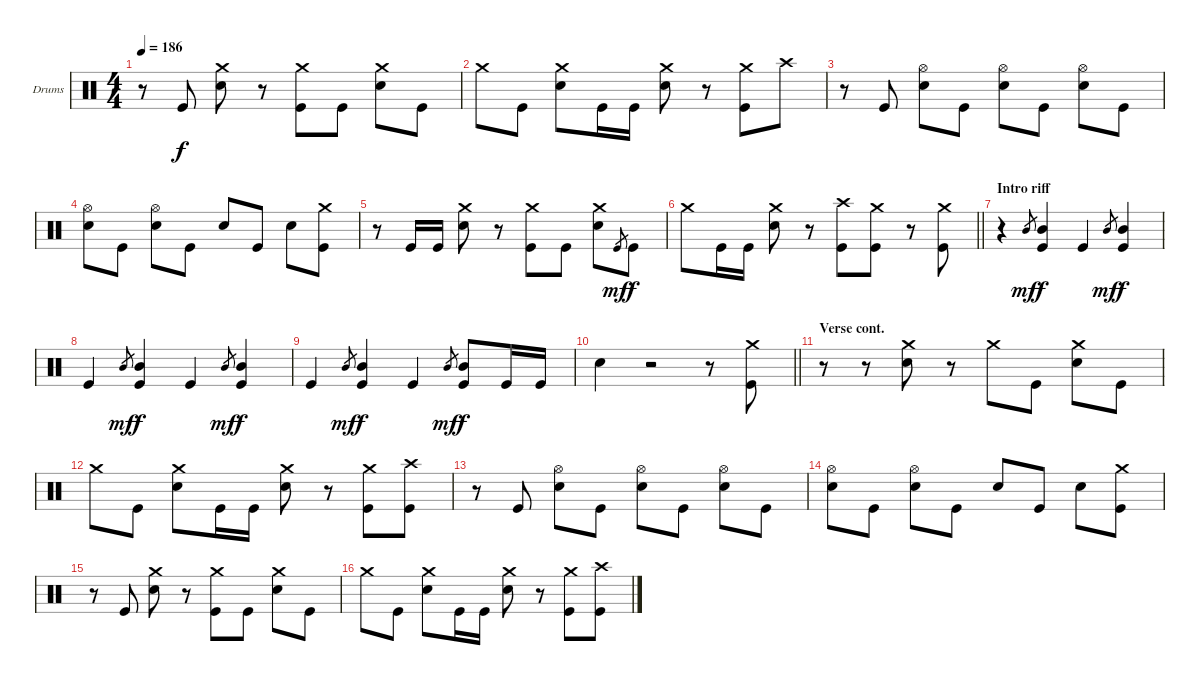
\bracketExtendMode groupsimilarinstruments
\firstSystemTrackNameOrientation horizontal
\otherSystemsTrackNameOrientation horizontal
\track ("Drumkit" "Drums") {instrument percussion}
\staff {score}
\articulation defaults
\ts (4 4)
\tempo 186
\clef neutral
\scale
0.333333
\ks c
r.8{dy f} "Kick (hit)".8 ("Crash medium (hit)" "Snare (hit) 2").8 r.8 ("Crash medium (hit)" "Kick (hit)").8 "Kick (hit)".8 ("Crash medium (hit)" "Snare (hit) 2").8 "Kick (hit)".8 |
\scale
0.333333 "Crash medium (hit)".8 "Kick (hit)".8 ("Crash medium (hit)" "Snare (hit) 2").8 "Kick (hit)".16 "Kick (hit)".16 ("Crash medium (hit)" "Snare (hit) 2").8 r.8 ("Crash medium (hit)" "Kick (hit)").8 "Crash high (hit)".8 |
\scale
0.333333 r.8 "Kick (hit)".8 ("Hi-Hat (open)" "Snare (hit) 2").8 "Kick (hit)".8 ("Hi-Hat (open)" "Snare (hit) 2").8 "Kick (hit)".8 ("Hi-Hat (open)" "Snare (hit) 2").8 "Kick (hit)".8 |
\scale
0.333333 ("Hi-Hat (open)" "Snare (hit) 2").8 "Kick (hit)".8 ("Hi-Hat (open)" "Snare (hit) 2").8 "Kick (hit)".8 "Snare (hit) 2".8 "Kick (hit)".8 "Snare (hit) 2".8 ("Crash medium (hit)" "Kick (hit)").8 |
\scale
0.333333 r.8 "Kick (hit)".16 "Kick (hit)".16 ("Crash medium (hit)" "Snare (hit) 2").8 r.8 ("Crash medium (hit)" "Kick (hit)").8 "Kick (hit)".8 ("Crash medium (hit)" "Snare (hit) 2").8 "Kick (hit)".8{gr dy mf} "Kick (hit)".8{dy f} |
\scale
0.333333
\barLineRight lightlight "Crash medium (hit)".8 "Kick (hit)".16 "Kick (hit)".16
("Crash medium (hit)" "Snare (hit) 2").8 r.8 ("Crash high (hit)" "Kick (hit)").8 ("Crash medium (hit)" "Kick (hit)").8 r.8 ("Crash medium (hit)" "Kick (hit)").8 |
\section ("" "Intro riff")
\scale
0.333333 r.4 "Mid Tom (hit)".8{gr dy mf} ("Mid Tom (hit)" "Kick (hit)").4{dy f} "Kick (hit)".4 "Mid Tom (hit)".8{gr dy mf} ("Mid Tom (hit)" "Kick (hit)").4{dy f} |
\scale
0.333333 "Kick (hit)".4 "Mid Tom (hit)".8{gr dy mf} ("Mid Tom (hit)" "Kick (hit)").4{dy f} "Kick (hit)".4 "Mid Tom (hit)".8{gr dy mf} ("Mid Tom (hit)" "Kick (hit)").4{dy f} |
\scale
0.333333 "Kick (hit)".4 "Mid Tom (hit)".8{gr dy mf} ("Mid Tom (hit)" "Kick (hit)").4{dy f} "Kick (hit)".4 "Mid Tom (hit)".8{gr dy mf} ("Mid Tom (hit)" "Kick (hit)").8{dy f} "Kick (hit)".16 "Kick (hit)".16 |
\scale
0.333333
\barLineRight lightlight "Snare (hit) 2".4
r.2 r.8 ("Crash medium (hit)" "Kick (hit)").8 |
\section ("" "Verse cont.")
\scale
0.333333 r.8 r.8 ("Crash medium (hit)" "Snare (hit) 2").8 r.8 "Crash medium (hit)".8 "Kick (hit)".8 ("Crash medium (hit)" "Snare (hit) 2").8 "Kick (hit)".8 |
\scale
0.333333 "Crash medium (hit)".8 "Kick (hit)".8 ("Crash medium (hit)" "Snare (hit) 2").8 "Kick (hit)".16 "Kick (hit)".16 ("Crash medium (hit)" "Snare (hit) 2").8 r.8 ("Crash medium (hit)" "Kick (hit)").8 ("Crash high (hit)" "Kick (hit)").8 |
\scale
0.333333 r.8 "Kick (hit)".8 ("Hi-Hat (open)" "Snare (hit) 2").8 "Kick (hit)".8 ("Hi-Hat (open)" "Snare (hit) 2").8 "Kick (hit)".8 ("Hi-Hat (open)" "Snare (hit) 2").8 "Kick (hit)".8 |
\scale
0.333333 ("Hi-Hat (open)" "Snare (hit) 2").8 "Kick (hit)".8 ("Hi-Hat (open)" "Snare (hit) 2").8 "Kick (hit)".8 "Snare (hit) 2".8 "Kick (hit)".8 "Snare (hit) 2".8 ("Crash medium (hit)" "Kick (hit)").8 |
\scale
0.333333 r.8 "Kick (hit)".8 ("Crash medium (hit)" "Snare (hit) 2").8 r.8 ("Crash medium (hit)" "Kick (hit)").8 "Kick (hit)".8 ("Crash medium (hit)" "Snare (hit) 2").8 "Kick (hit)".8 |
\scale
0.333333 "Crash medium (hit)".8 "Kick (hit)".8 ("Crash medium (hit)" "Snare (hit) 2").8 "Kick (hit)".16 "Kick (hit)".16 ("Crash medium (hit)" "Snare (hit) 2").8 r.8 ("Crash medium (hit)" "Kick (hit)").8 ("Crash high (hit)" "Kick (hit)").8
